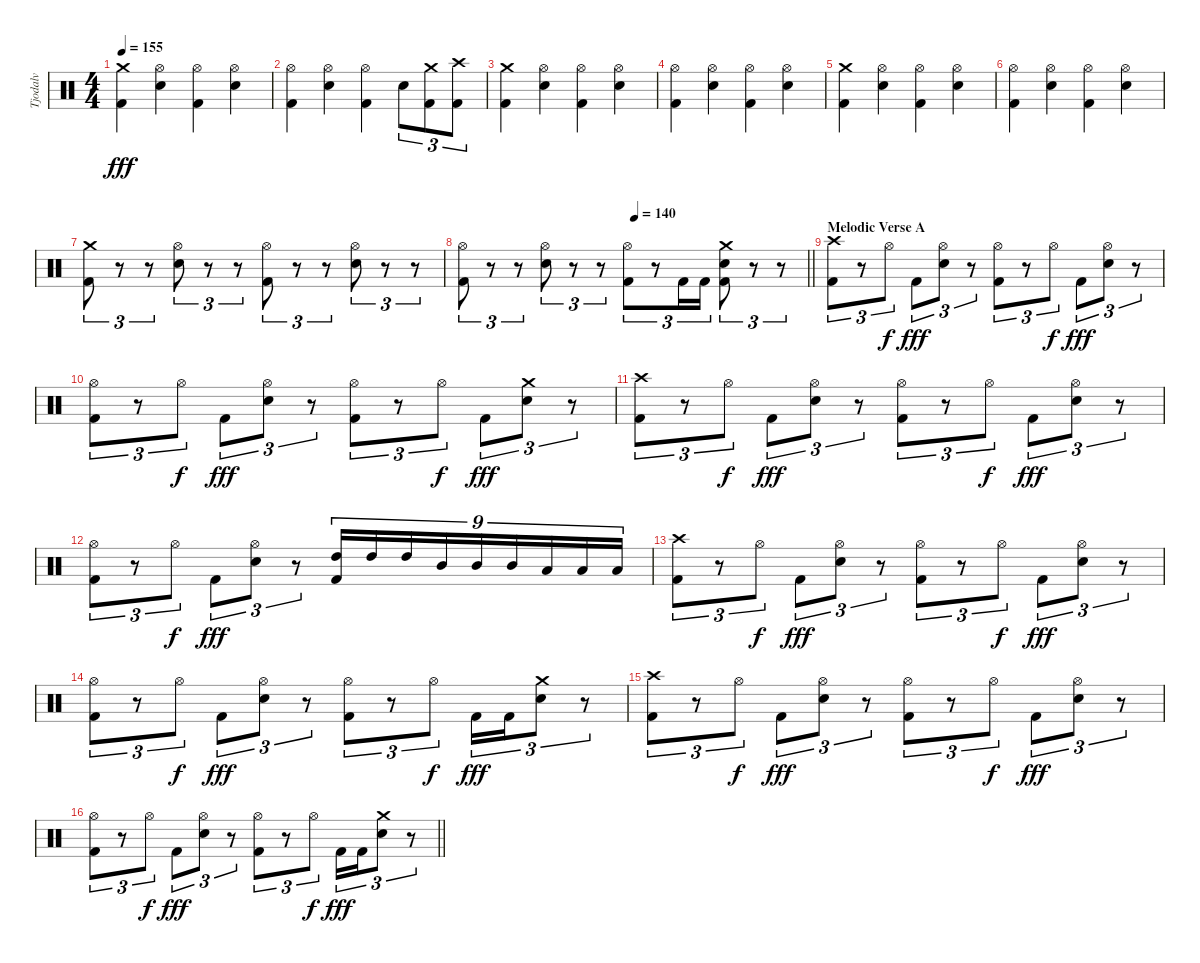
\track ("Tjodalv" "Tjodalv") {instrument percussion}
\staff {score}
\articulation defaults
\ts (4 4)
\tempo 155
\clef neutral
\ks c
("Crash medium (hit)" "Kick (hit) 2").4{dy fff} ("Hi-Hat (open)" "Snare (hit) 2").4 ("Hi-Hat (open)" "Kick (hit) 2").4 ("Hi-Hat (open)" "Snare (hit) 2").4 |
("Hi-Hat (open)" "Kick (hit) 2").4 ("Hi-Hat (open)" "Snare (hit) 2").4 ("Hi-Hat (open)" "Kick (hit) 2").4 "Snare (hit) 2".8{tu (3 2)} ("Crash medium (hit)" "Kick (hit) 2").8{tu (3 2)} ("Crash high (hit)" "Kick (hit) 2").8{tu (3 2)} |
("Crash medium (hit)" "Kick (hit) 2").4 ("Hi-Hat (open)" "Snare (hit) 2").4 ("Hi-Hat (open)" "Kick (hit) 2").4 ("Hi-Hat (open)" "Snare (hit) 2").4 |
("Hi-Hat (open)" "Kick (hit) 2").4 ("Hi-Hat (open)" "Snare (hit) 2").4 ("Hi-Hat (open)" "Kick (hit) 2").4 ("Hi-Hat (open)" "Snare (hit) 2").4 |
("Crash medium (hit)" "Kick (hit) 2").4 ("Hi-Hat (open)" "Snare (hit) 2").4 ("Hi-Hat (open)" "Kick (hit) 2").4 ("Hi-Hat (open)" "Snare (hit) 2").4 |
("Hi-Hat (open)" "Kick (hit) 2").4 ("Hi-Hat (open)" "Snare (hit) 2").4 ("Hi-Hat (open)" "Kick (hit) 2").4 ("Hi-Hat (open)" "Snare (hit) 2").4 |
("Crash medium (hit)" "Kick (hit) 2").8{tu (3 2)} r.8{tu (3 2)} r.8{tu (3 2)} ("Hi-Hat (open)" "Snare (hit) 2").8{tu (3 2)} r.8{tu (3 2)} r.8{tu (3 2)} ("Hi-Hat (open)" "Kick (hit) 2").8{tu (3 2)} r.8{tu (3 2)} r.8{tu (3 2)} ("Hi-Hat (open)" "Snare (hit) 2").8{tu (3 2)} r.8{tu (3 2)} r.8{tu (3 2)} |
\tempo (140 0.5)
\barLineRight lightlight
("Hi-Hat (open)" "Kick (hit) 2").8{tu (3 2)} r.8{tu (3 2)} r.8{tu (3 2)} ("Hi-Hat (open)" "Snare (hit) 2").8{tu (3 2)} r.8{tu (3 2)} r.8{tu (3 2)} ("Hi-Hat (open)" "Kick (hit) 2").8{tu (3 2)} r.8{tu (3 2)} "Kick (hit) 2".16{tu (3 2)} "Kick (hit) 2".16{tu (3 2)} ("Crash medium (hit)" "Snare (hit) 2" "Kick (hit) 2").8{tu (3 2)} r.8{tu (3 2)} r.8{tu (3 2)} |
\section ("" "Melodic Verse A")
("Crash high (hit)" "Kick (hit) 2").8{tu (3 2)} r.8{tu (3 2)} "Hi-Hat (open)".8{tu (3 2) dy f} "Kick (hit) 2".8{tu (3 2) dy fff} ("Hi-Hat (open)" "Snare (hit) 2").8{tu (3 2)} r.8{tu (3 2)} ("Hi-Hat (open)" "Kick (hit) 2").8{tu (3 2)} r.8{tu (3 2)} "Hi-Hat (open)".8{tu (3 2) dy f} "Kick (hit) 2".8{tu (3 2) dy fff} ("Hi-Hat (open)" "Snare (hit) 2").8{tu (3 2)} r.8{tu (3 2)} |
("Hi-Hat (open)" "Kick (hit) 2").8{tu (3 2)} r.8{tu (3 2)} "Hi-Hat (open)".8{tu (3 2) dy f} "Kick (hit) 2".8{tu (3 2) dy fff} ("Hi-Hat (open)" "Snare (hit) 2").8{tu (3 2)} r.8{tu (3 2)} ("Hi-Hat (open)" "Kick (hit) 2").8{tu (3 2)} r.8{tu (3 2)} "Hi-Hat (open)".8{tu (3 2) dy f} "Kick (hit) 2".8{tu (3 2) dy fff} ("Crash medium (hit)" "Snare (hit) 2").8{tu (3 2)} r.8{tu (3 2)} |
("Crash high (hit)" "Kick (hit) 2").8{tu (3 2)} r.8{tu (3 2)} "Hi-Hat (open)".8{tu (3 2) dy f} "Kick (hit) 2".8{tu (3 2) dy fff} ("Hi-Hat (open)" "Snare (hit) 2").8{tu (3 2)} r.8{tu (3 2)} ("Hi-Hat (open)" "Kick (hit) 2").8{tu (3 2)} r.8{tu (3 2)} "Hi-Hat (open)".8{tu (3 2) dy f} "Kick (hit) 2".8{tu (3 2) dy fff} ("Hi-Hat (open)" "Snare (hit) 2").8{tu (3 2)} r.8{tu (3 2)} |
("Hi-Hat (open)" "Kick (hit) 2").8{tu (3 2)} r.8{tu (3 2)} "Hi-Hat (open)".8{tu (3 2) dy f} "Kick (hit) 2".8{tu (3 2) dy fff} ("Hi-Hat (open)" "Snare (hit) 2").8{tu (3 2)} r.8{tu (3 2)} ("High Tom (hit)" "Kick (hit) 2").16{tu (9 8)} "High Tom (hit)".16{tu (9 8)} "High Tom (hit)".16{tu (9 8)} "Mid Tom (hit)".16{tu (9 8)} "Mid Tom (hit)".16{tu (9 8)} "Mid Tom (hit)".16{tu (9 8)} "Low Tom (hit)".16{tu (9 8)} "Low Tom (hit)".16{tu (9 8)} "Low Tom (hit)".16{tu (9 8)} |
("Crash high (hit)" "Kick (hit) 2").8{tu (3 2)} r.8{tu (3 2)} "Hi-Hat (open)".8{tu (3 2) dy f} "Kick (hit) 2".8{tu (3 2) dy fff} ("Hi-Hat (open)" "Snare (hit) 2").8{tu (3 2)} r.8{tu (3 2)} ("Hi-Hat (open)" "Kick (hit) 2").8{tu (3 2)} r.8{tu (3 2)} "Hi-Hat (open)".8{tu (3 2) dy f} "Kick (hit) 2".8{tu (3 2) dy fff} ("Hi-Hat (open)" "Snare (hit) 2").8{tu (3 2)} r.8{tu (3 2)} |
("Hi-Hat (open)" "Kick (hit) 2").8{tu (3 2)} r.8{tu (3 2)} "Hi-Hat (open)".8{tu (3 2) dy f} "Kick (hit) 2".8{tu (3 2) dy fff} ("Hi-Hat (open)" "Snare (hit) 2").8{tu (3 2)} r.8{tu (3 2)} ("Hi-Hat (open)" "Kick (hit) 2").8{tu (3 2)} r.8{tu (3 2)} "Hi-Hat (open)".8{tu (3 2) dy f} "Kick (hit) 2".16{tu (3 2) dy fff} "Kick (hit) 2".16{tu (3 2)} ("Crash medium (hit)" "Snare (hit) 2").8{tu (3 2)} r.8{tu (3 2)} |
("Crash high (hit)" "Kick (hit) 2").8{tu (3 2)} r.8{tu (3 2)} "Hi-Hat (open)".8{tu (3 2) dy f} "Kick (hit) 2".8{tu (3 2) dy fff} ("Hi-Hat (open)" "Snare (hit) 2").8{tu (3 2)} r.8{tu (3 2)} ("Hi-Hat (open)" "Kick (hit) 2").8{tu (3 2)} r.8{tu (3 2)} "Hi-Hat (open)".8{tu (3 2) dy f} "Kick (hit) 2".8{tu (3 2) dy fff} ("Hi-Hat (open)" "Snare (hit) 2").8{tu (3 2)} r.8{tu (3 2)} |
\barLineRight lightlight
("Hi-Hat (open)" "Kick (hit) 2").8{tu (3 2)} r.8{tu (3 2)} "Hi-Hat (open)".8{tu (3 2) dy f} "Kick (hit) 2".8{tu (3 2) dy fff} ("Hi-Hat (open)" "Snare (hit) 2").8{tu (3 2)} r.8{tu (3 2)} ("Hi-Hat (open)" "Kick (hit) 2").8{tu (3 2)} r.8{tu (3 2)} "Hi-Hat (open)".8{tu (3 2) dy f} "Kick (hit) 2".16{tu (3 2) dy fff} "Kick (hit) 2".16{tu (3 2)} ("Crash medium (hit)" "Snare (hit) 2").8{tu (3 2)} r.8{tu (3 2)}
